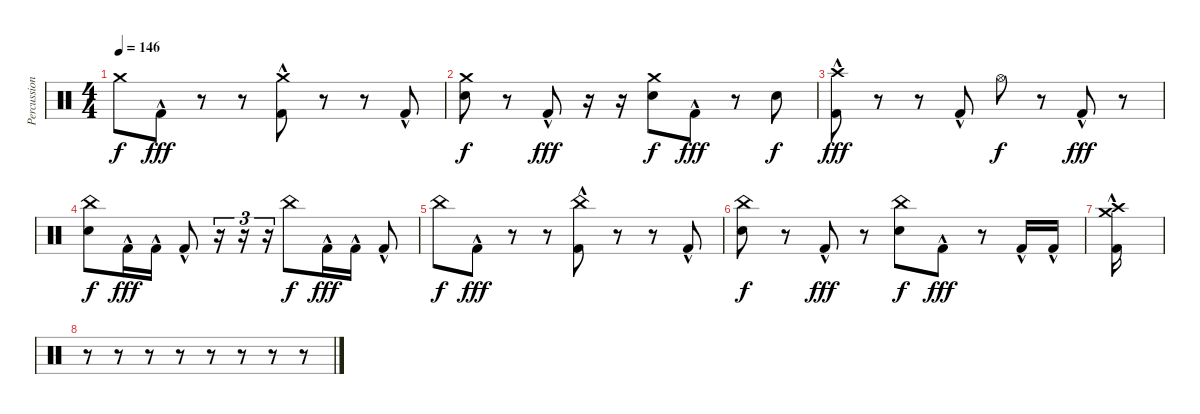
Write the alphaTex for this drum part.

\track ("Percussion" "Percussion") {instrument percussion}
\staff {score}
\articulation defaults
\ts (4 4)
\tempo 146
\clef neutral
\ks aminor "Crash medium (hit)".8{dy f} "Kick (hit) 2"{hac}.8{dy fff}
r.8 r.8 ("Crash medium (hit)" "Kick (hit) 2"{hac}).8 r.8 r.8 "Kick (hit) 2"{hac}.8 |
("Electric Snare (hit)" "Crash medium (hit)").8{dy f} r.8 "Kick (hit) 2"{hac}.8{dy fff} r.16 r.16 ("Electric Snare (hit)" "Crash medium (hit)").8{dy f} "Kick (hit) 2"{hac}.8{dy fff} r.8 "Electric Snare (hit)".8{dy f} |
("Crash high (hit)" "Kick (hit) 2"{hac}).8{dy fff} r.8 r.8 "Kick (hit) 2"{hac}.8 "Hi-Hat (open)".8{dy f} r.8 "Kick (hit) 2"{hac}.8{dy fff} r.8 |
("China (hit)" "Electric Snare (hit)").8{dy f} "Kick (hit) 2"{hac}.16{dy fff} "Kick (hit) 2"{hac}.16 "Kick (hit) 2"{hac}.8 r.16{tu (3 2)} r.16{tu (3 2)} r.16{tu (3 2)} "China (hit)".8{dy f} "Kick (hit) 2"{hac}.16{dy fff} "Kick (hit) 2"{hac}.16 "Kick (hit) 2"{hac}.8 |
"China (hit)".8{dy f} "Kick (hit) 2"{hac}.8{dy fff} r.8 r.8 ("China (hit)" "Kick (hit) 2"{hac}).8 r.8 r.8 "Kick (hit) 2"{hac}.8 |
("Electric Snare (hit)" "China (hit)").8{dy f} r.8 "Kick (hit) 2"{hac}.8{dy fff} r.8 ("Electric Snare (hit)" "China (hit)").8{dy f} "Kick (hit) 2"{hac}.8{dy fff} r.8 "Kick (hit) 2"{hac}.16 "Kick (hit) 2"{hac}.16 |
("Crash high (hit)" "Crash medium (hit)" "Kick (hit) 2"{hac}).16 |
r.8 r.8 r.8 r.8 r.8 r.8 r.8 r.8
